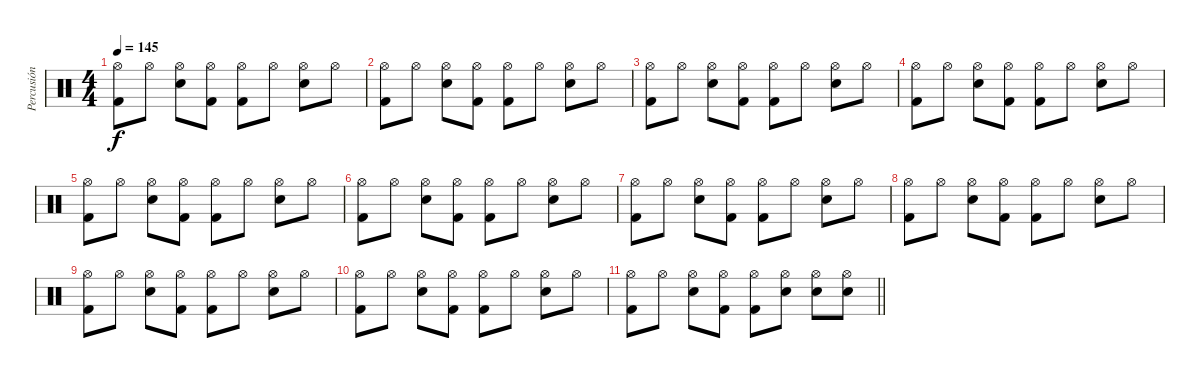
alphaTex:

\track ("Percusión" "Percusión") {instrument percussion}
\staff {score}
\articulation defaults
\ts (4 4)
\tempo 145
\clef neutral
\ks c
("Kick (hit) 2" "Hi-Hat (open)").8{dy f} "Hi-Hat (open)".8 ("Electric Snare (hit)" "Hi-Hat (open)").8 ("Kick (hit) 2" "Hi-Hat (open)").8 ("Kick (hit) 2" "Hi-Hat (open)").8 "Hi-Hat (open)".8 ("Electric Snare (hit)" "Hi-Hat (open)").8 "Hi-Hat (open)".8 |
("Kick (hit) 2" "Hi-Hat (open)").8 "Hi-Hat (open)".8 ("Electric Snare (hit)" "Hi-Hat (open)").8 ("Kick (hit) 2" "Hi-Hat (open)").8 ("Kick (hit) 2" "Hi-Hat (open)").8 "Hi-Hat (open)".8 ("Electric Snare (hit)" "Hi-Hat (open)").8 "Hi-Hat (open)".8 |
("Kick (hit) 2" "Hi-Hat (open)").8 "Hi-Hat (open)".8 ("Electric Snare (hit)" "Hi-Hat (open)").8 ("Kick (hit) 2" "Hi-Hat (open)").8 ("Kick (hit) 2" "Hi-Hat (open)").8 "Hi-Hat (open)".8 ("Electric Snare (hit)" "Hi-Hat (open)").8 "Hi-Hat (open)".8 |
("Kick (hit) 2" "Hi-Hat (open)").8 "Hi-Hat (open)".8 ("Electric Snare (hit)" "Hi-Hat (open)").8 ("Kick (hit) 2" "Hi-Hat (open)").8 ("Kick (hit) 2" "Hi-Hat (open)").8 "Hi-Hat (open)".8 ("Electric Snare (hit)" "Hi-Hat (open)").8 "Hi-Hat (open)".8 |
("Kick (hit) 2" "Hi-Hat (open)").8 "Hi-Hat (open)".8 ("Electric Snare (hit)" "Hi-Hat (open)").8 ("Kick (hit) 2" "Hi-Hat (open)").8 ("Kick (hit) 2" "Hi-Hat (open)").8 "Hi-Hat (open)".8 ("Electric Snare (hit)" "Hi-Hat (open)").8 "Hi-Hat (open)".8 |
("Kick (hit) 2" "Hi-Hat (open)").8 "Hi-Hat (open)".8 ("Electric Snare (hit)" "Hi-Hat (open)").8 ("Kick (hit) 2" "Hi-Hat (open)").8 ("Kick (hit) 2" "Hi-Hat (open)").8 "Hi-Hat (open)".8 ("Electric Snare (hit)" "Hi-Hat (open)").8 "Hi-Hat (open)".8 |
("Kick (hit) 2" "Hi-Hat (open)").8 "Hi-Hat (open)".8 ("Electric Snare (hit)" "Hi-Hat (open)").8 ("Kick (hit) 2" "Hi-Hat (open)").8 ("Kick (hit) 2" "Hi-Hat (open)").8 "Hi-Hat (open)".8 ("Electric Snare (hit)" "Hi-Hat (open)").8 "Hi-Hat (open)".8 |
("Kick (hit) 2" "Hi-Hat (open)").8 "Hi-Hat (open)".8 ("Electric Snare (hit)" "Hi-Hat (open)").8 ("Kick (hit) 2" "Hi-Hat (open)").8 ("Kick (hit) 2" "Hi-Hat (open)").8 "Hi-Hat (open)".8 ("Electric Snare (hit)" "Hi-Hat (open)").8 "Hi-Hat (open)".8 |
("Kick (hit) 2" "Hi-Hat (open)").8 "Hi-Hat (open)".8 ("Electric Snare (hit)" "Hi-Hat (open)").8 ("Kick (hit) 2" "Hi-Hat (open)").8 ("Kick (hit) 2" "Hi-Hat (open)").8 "Hi-Hat (open)".8 ("Electric Snare (hit)" "Hi-Hat (open)").8 "Hi-Hat (open)".8 |
("Kick (hit) 2" "Hi-Hat (open)").8 "Hi-Hat (open)".8 ("Electric Snare (hit)" "Hi-Hat (open)").8 ("Kick (hit) 2" "Hi-Hat (open)").8 ("Kick (hit) 2" "Hi-Hat (open)").8 "Hi-Hat (open)".8 ("Electric Snare (hit)" "Hi-Hat (open)").8 "Hi-Hat (open)".8 |
\barLineRight lightlight
("Kick (hit) 2" "Hi-Hat (open)").8 "Hi-Hat (open)".8 ("Electric Snare (hit)" "Hi-Hat (open)").8 ("Kick (hit) 2" "Hi-Hat (open)").8 ("Kick (hit) 2" "Hi-Hat (open)").8 ("Electric Snare (hit)" "Hi-Hat (open)").8 ("Electric Snare (hit)" "Hi-Hat (open)").8 ("Electric Snare (hit)" "Hi-Hat (open)").8
